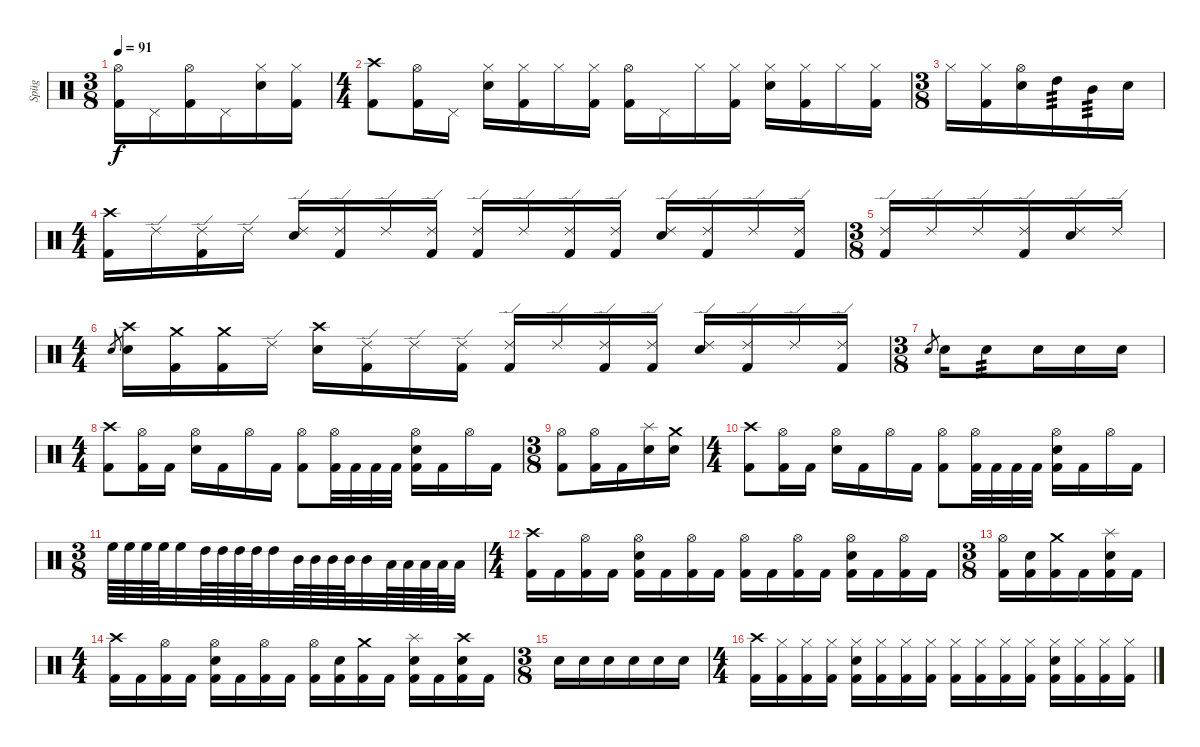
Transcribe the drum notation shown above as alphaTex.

\track ("Spüg" "Spüg") {instrument percussion}
\staff {score}
\articulation defaults
\ts (3 8)
\tempo 91
\clef neutral
\ks c
("Hi-Hat (open)" "Kick (hit) 2").16{dy f} "Pedal Hi-Hat (hit)".16 ("Hi-Hat (open)" "Kick (hit) 2").16 "Pedal Hi-Hat (hit)".16 ("Hi-Hat (closed)" "Electric Snare (hit)").16 ("Hi-Hat (closed)" "Kick (hit) 2").16 |
\ts (4 4)
("Crash high (hit)" "Kick (hit) 2").8 ("Hi-Hat (open)" "Kick (hit) 2").16 "Pedal Hi-Hat (hit)".16 ("Hi-Hat (closed)" "Electric Snare (hit)").16 ("Hi-Hat (closed)" "Kick (hit) 2").16 "Hi-Hat (closed)".16 ("Hi-Hat (closed)" "Kick (hit) 2").16 ("Hi-Hat (open)" "Kick (hit) 2").16 "Pedal Hi-Hat (hit)".16 "Hi-Hat (closed)".16 ("Hi-Hat (closed)" "Kick (hit) 2").16 ("Hi-Hat (closed)" "Electric Snare (hit)").16 ("Hi-Hat (closed)" "Kick (hit) 2").16 "Hi-Hat (closed)".16 ("Hi-Hat (closed)" "Kick (hit) 2").16 |
\ts (3 8)
"Hi-Hat (closed)".16 ("Hi-Hat (closed)" "Kick (hit) 2").16 ("Hi-Hat (open)" "Electric Snare (hit)").16 "High Tom (hit)".16{tp 3} "Mid Tom (hit)".16{tp 3} "Electric Snare (hit)".16 |
\ts (4 4)
("Crash high (hit)" "Kick (hit) 2").16 "Ride (edge) 2".16 ("Ride (edge) 2" "Kick (hit) 2").16 "Ride (edge) 2".16 ("Ride (edge) 2" "Electric Snare (hit)").16 ("Ride (edge) 2" "Kick (hit) 2").16 "Ride (edge) 2".16 ("Ride (edge) 2" "Kick (hit) 2").16 ("Ride (edge) 2" "Kick (hit) 2").16 "Ride (edge) 2".16 ("Ride (edge) 2" "Kick (hit) 2").16 ("Ride (edge) 2" "Kick (hit) 2").16 ("Ride (edge) 2" "Electric Snare (hit)").16 ("Ride (edge) 2" "Kick (hit) 2").16 "Ride (edge) 2".16 ("Ride (edge) 2" "Kick (hit) 2").16 |
\ts (3 8)
("Ride (edge) 2" "Kick (hit) 2").16 "Ride (edge) 2".16 "Ride (edge) 2".16 ("Ride (edge) 2" "Kick (hit) 2").16 ("Ride (edge) 2" "Electric Snare (hit)").16 "Ride (edge) 2".16 |
\ts (4 4)
"Electric Snare (hit)".8{gr} ("Crash high (hit)" "Electric Snare (hit)").16 ("Crash medium (hit)" "Kick (hit) 2").16 ("Crash medium (hit)" "Kick (hit) 2").16 "Ride (edge) 2".16 ("Crash high (hit)" "Electric Snare (hit)").16 ("Ride (edge) 2" "Kick (hit) 2").16 "Ride (edge) 2".16 ("Ride (edge) 2" "Kick (hit) 2").16 ("Ride (edge) 2" "Kick (hit) 2").16 "Ride (edge) 2".16 ("Ride (edge) 2" "Kick (hit) 2").16 ("Ride (edge) 2" "Kick (hit) 2").16 ("Ride (edge) 2" "Electric Snare (hit)").16 ("Ride (edge) 2" "Kick (hit) 2").16 "Ride (edge) 2".16 ("Ride (edge) 2" "Kick (hit) 2").16 |
\ts (3 8)
"Electric Snare (hit)".8{gr} "Electric Snare (hit)".16 "Electric Snare (hit)".8{tp 3} "Electric Snare (hit)".16 "Electric Snare (hit)".16 "Electric Snare (hit)".16 |
\ts (4 4)
("Crash high (hit)" "Kick (hit) 2").8 ("Hi-Hat (open)" "Kick (hit) 2").16 "Kick (hit) 2".16 ("Hi-Hat (open)" "Electric Snare (hit)").16 "Kick (hit) 2".16 "Hi-Hat (open)".16 "Kick (hit) 2".16 ("Hi-Hat (open)" "Kick (hit) 2").8 ("Hi-Hat (open)" "Kick (hit) 2").32 "Kick (hit) 2".32 "Kick (hit) 2".32 "Kick (hit) 2".32 ("Hi-Hat (open)" "Electric Snare (hit)" "Kick (hit) 2").16 "Kick (hit) 2".16 "Hi-Hat (open)".16 "Kick (hit) 2".16 |
\ts (3 8)
("Hi-Hat (open)" "Kick (hit) 2").8 ("Hi-Hat (open)" "Kick (hit) 2").16 "Kick (hit) 2".16 ("Splash (hit)" "Electric Snare (hit)").16 ("Crash medium (hit)" "Electric Snare (hit)").16 |
\ts (4 4)
("Crash high (hit)" "Kick (hit) 2").8 ("Hi-Hat (open)" "Kick (hit) 2").16 "Kick (hit) 2".16 ("Hi-Hat (open)" "Electric Snare (hit)").16 "Kick (hit) 2".16 "Hi-Hat (open)".16 "Kick (hit) 2".16 ("Hi-Hat (open)" "Kick (hit) 2").8 ("Hi-Hat (open)" "Kick (hit) 2").32 "Kick (hit) 2".32 "Kick (hit) 2".32 "Kick (hit) 2".32 ("Hi-Hat (open)" "Electric Snare (hit)" "Kick (hit) 2").16 "Kick (hit) 2".16 "Hi-Hat (open)".16 "Kick (hit) 2".16 |
\ts (3 8)
"High Floor Tom (hit)".64 "High Floor Tom (hit)".64 "High Floor Tom (hit)".64 "High Floor Tom (hit)".64 "High Floor Tom (hit)".32 "High Tom (hit)".64 "High Tom (hit)".64 "High Tom (hit)".64 "High Tom (hit)".64 "High Tom (hit)".32 "Mid Tom (hit)".64 "Mid Tom (hit)".64 "Mid Tom (hit)".64 "Mid Tom (hit)".64 "Mid Tom (hit)".32 "Low Tom (hit)".64 "Low Tom (hit)".64 "Low Tom (hit)".64 "Low Tom (hit)".64 "Low Tom (hit)".32 |
\ts (4 4)
("Crash high (hit)" "Kick (hit) 2").16 "Kick (hit) 2".16 ("Hi-Hat (open)" "Kick (hit) 2").16 "Kick (hit) 2".16 ("Hi-Hat (open)" "Electric Snare (hit)" "Kick (hit) 2").16 "Kick (hit) 2".16 ("Hi-Hat (open)" "Kick (hit) 2").16 "Kick (hit) 2".16 ("Hi-Hat (open)" "Kick (hit) 2").16 "Kick (hit) 2".16 ("Hi-Hat (open)" "Kick (hit) 2").16 "Kick (hit) 2".16 ("Hi-Hat (open)" "Electric Snare (hit)" "Kick (hit) 2").16 "Kick (hit) 2".16 ("Hi-Hat (open)" "Kick (hit) 2").16 "Kick (hit) 2".16 |
\ts (3 8)
("Hi-Hat (open)" "Kick (hit) 2").16 ("Electric Snare (hit)" "Kick (hit) 2").16 ("Crash medium (hit)" "Kick (hit) 2").16 "Kick (hit) 2".16 ("Splash (hit)" "Electric Snare (hit)" "Kick (hit) 2").16 "Kick (hit) 2".16 |
\ts (4 4)
("Crash high (hit)" "Kick (hit) 2").16 "Kick (hit) 2".16 ("Hi-Hat (open)" "Kick (hit) 2").16 "Kick (hit) 2".16 ("Hi-Hat (open)" "Electric Snare (hit)" "Kick (hit) 2").16 "Kick (hit) 2".16 ("Hi-Hat (open)" "Kick (hit) 2").16 "Kick (hit) 2".16 ("Hi-Hat (open)" "Kick (hit) 2").16 ("Electric Snare (hit)" "Kick (hit) 2").16 ("Crash medium (hit)" "Kick (hit) 2").16 "Kick (hit) 2".16 ("Splash (hit)" "Electric Snare (hit)" "Kick (hit) 2").16 "Kick (hit) 2".16 ("Crash high (hit)" "Electric Snare (hit)" "Kick (hit) 2").16 "Kick (hit) 2".16 |
\ts (3 8)
"Electric Snare (hit)".16 "Electric Snare (hit)".16 "Electric Snare (hit)".16 "Electric Snare (hit)".16 "Electric Snare (hit)".16 "Electric Snare (hit)".16 |
\ts (4 4)
("Crash high (hit)" "Kick (hit) 2").16 ("Hi-Hat (closed)" "Kick (hit) 2").16 ("Hi-Hat (closed)" "Kick (hit) 2").16 ("Hi-Hat (closed)" "Kick (hit) 2").16 ("Hi-Hat (closed)" "Electric Snare (hit)" "Kick (hit) 2").16 ("Hi-Hat (closed)" "Kick (hit) 2").16 ("Hi-Hat (closed)" "Kick (hit) 2").16 ("Hi-Hat (closed)" "Kick (hit) 2").16 ("Hi-Hat (closed)" "Kick (hit) 2").16 ("Hi-Hat (closed)" "Kick (hit) 2").16 ("Hi-Hat (closed)" "Kick (hit) 2").16 ("Hi-Hat (closed)" "Kick (hit) 2").16 ("Hi-Hat (closed)" "Electric Snare (hit)" "Kick (hit) 2").16 ("Hi-Hat (closed)" "Kick (hit) 2").16 ("Hi-Hat (closed)" "Kick (hit) 2").16 ("Hi-Hat (closed)" "Kick (hit) 2").16
